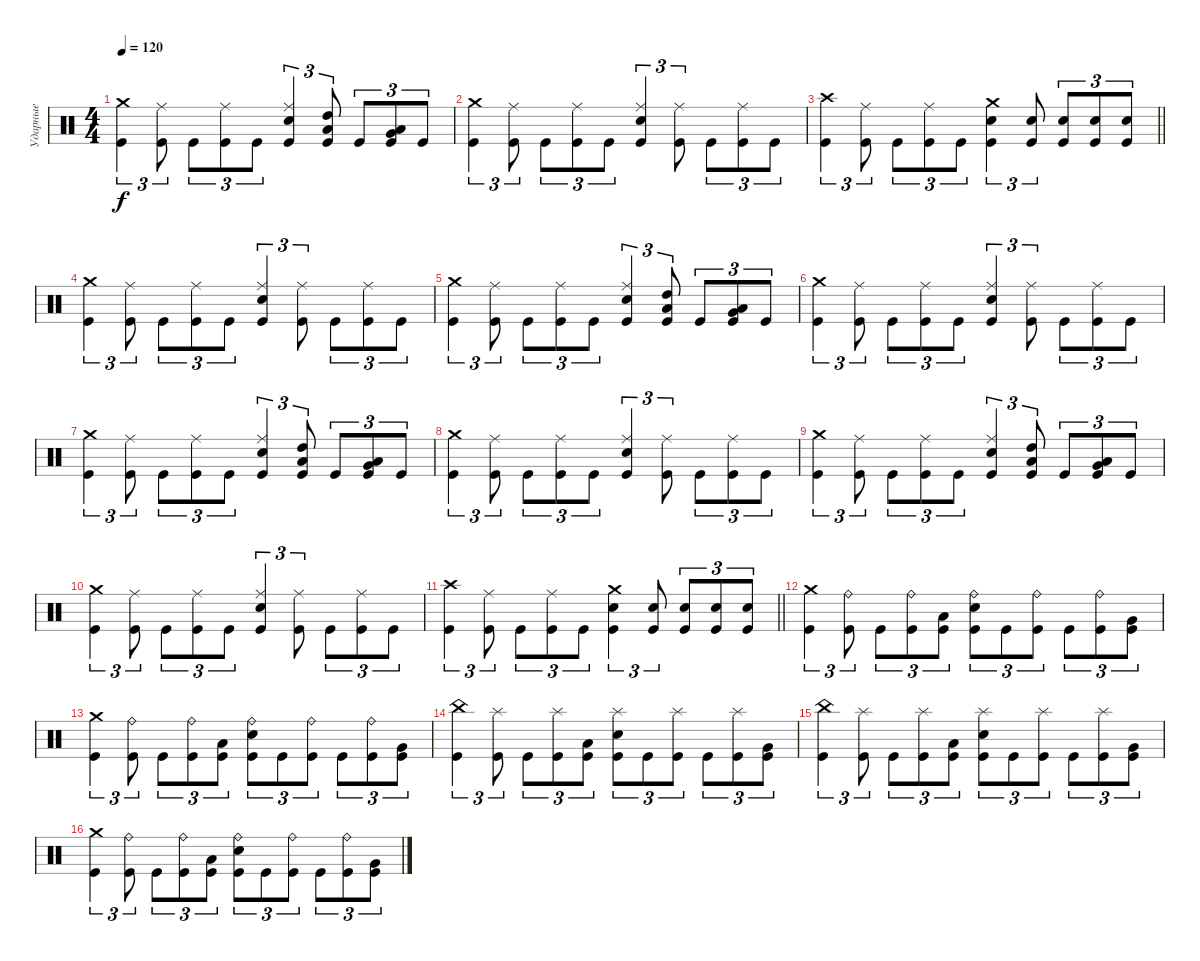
\track ("Ударные" "Ударные") {instrument percussion}
\staff {score}
\articulation defaults
\ts (4 4)
\tempo 120
\clef neutral
\ks c
("Crash medium (hit)" "Kick (hit)").4{tu (3 2) dy f} ("Ride (middle)" "Kick (hit)").8{tu (3 2)} "Kick (hit)".8{tu (3 2)} ("Ride (middle)" "Kick (hit)").8{tu (3 2)} "Kick (hit)".8{tu (3 2)} ("Ride (middle)" "Electric Snare (hit)" "Kick (hit)").4{tu (3 2)} ("Low Tom (hit)" "High Tom (hit)" "Kick (hit)").8{tu (3 2)} "Kick (hit)".8{tu (3 2)} ("Very Low Tom (hit)" "Low Tom (hit)" "Kick (hit)").8{tu (3 2)} "Kick (hit)".8{tu (3 2)} |
("Crash medium (hit)" "Kick (hit)").4{tu (3 2)} ("Ride (middle)" "Kick (hit)").8{tu (3 2)} "Kick (hit)".8{tu (3 2)} ("Ride (middle)" "Kick (hit)").8{tu (3 2)} "Kick (hit)".8{tu (3 2)} ("Ride (middle)" "Electric Snare (hit)" "Kick (hit)").4{tu (3 2)} ("Ride (middle)" "Kick (hit)").8{tu (3 2)} "Kick (hit)".8{tu (3 2)} ("Ride (middle)" "Kick (hit)").8{tu (3 2)} "Kick (hit)".8{tu (3 2)} |
\barLineRight lightlight
("Crash high (hit)" "Kick (hit)").4{tu (3 2)} ("Ride (middle)" "Kick (hit)").8{tu (3 2)} "Kick (hit)".8{tu (3 2)} ("Ride (middle)" "Kick (hit)").8{tu (3 2)} "Kick (hit)".8{tu (3 2)} ("Crash medium (hit)" "Electric Snare (hit)" "Kick (hit)").4{tu (3 2)} ("Electric Snare (hit)" "Kick (hit)").8{tu (3 2)} ("Electric Snare (hit)" "Kick (hit)").8{tu (3 2)} ("Electric Snare (hit)" "Kick (hit)").8{tu (3 2)} ("Electric Snare (hit)" "Kick (hit)").8{tu (3 2)} |
\section ("" " ")
("Crash medium (hit)" "Kick (hit)").4{tu (3 2)} ("Ride (middle)" "Kick (hit)").8{tu (3 2)} "Kick (hit)".8{tu (3 2)} ("Ride (middle)" "Kick (hit)").8{tu (3 2)} "Kick (hit)".8{tu (3 2)} ("Ride (middle)" "Electric Snare (hit)" "Kick (hit)").4{tu (3 2)} ("Ride (middle)" "Kick (hit)").8{tu (3 2)} "Kick (hit)".8{tu (3 2)} ("Ride (middle)" "Kick (hit)").8{tu (3 2)} "Kick (hit)".8{tu (3 2)} |
("Crash medium (hit)" "Kick (hit)").4{tu (3 2)} ("Ride (middle)" "Kick (hit)").8{tu (3 2)} "Kick (hit)".8{tu (3 2)} ("Ride (middle)" "Kick (hit)").8{tu (3 2)} "Kick (hit)".8{tu (3 2)} ("Ride (middle)" "Electric Snare (hit)" "Kick (hit)").4{tu (3 2)} ("Low Tom (hit)" "High Tom (hit)" "Kick (hit)").8{tu (3 2)} "Kick (hit)".8{tu (3 2)} ("Very Low Tom (hit)" "Low Tom (hit)" "Kick (hit)").8{tu (3 2)} "Kick (hit)".8{tu (3 2)} |
("Crash medium (hit)" "Kick (hit)").4{tu (3 2)} ("Ride (middle)" "Kick (hit)").8{tu (3 2)} "Kick (hit)".8{tu (3 2)} ("Ride (middle)" "Kick (hit)").8{tu (3 2)} "Kick (hit)".8{tu (3 2)} ("Ride (middle)" "Electric Snare (hit)" "Kick (hit)").4{tu (3 2)} ("Ride (middle)" "Kick (hit)").8{tu (3 2)} "Kick (hit)".8{tu (3 2)} ("Ride (middle)" "Kick (hit)").8{tu (3 2)} "Kick (hit)".8{tu (3 2)} |
("Crash medium (hit)" "Kick (hit)").4{tu (3 2)} ("Ride (middle)" "Kick (hit)").8{tu (3 2)} "Kick (hit)".8{tu (3 2)} ("Ride (middle)" "Kick (hit)").8{tu (3 2)} "Kick (hit)".8{tu (3 2)} ("Ride (middle)" "Electric Snare (hit)" "Kick (hit)").4{tu (3 2)} ("Low Tom (hit)" "High Tom (hit)" "Kick (hit)").8{tu (3 2)} "Kick (hit)".8{tu (3 2)} ("Very Low Tom (hit)" "Low Tom (hit)" "Kick (hit)").8{tu (3 2)} "Kick (hit)".8{tu (3 2)} |
("Crash medium (hit)" "Kick (hit)").4{tu (3 2)} ("Ride (middle)" "Kick (hit)").8{tu (3 2)} "Kick (hit)".8{tu (3 2)} ("Ride (middle)" "Kick (hit)").8{tu (3 2)} "Kick (hit)".8{tu (3 2)} ("Ride (middle)" "Electric Snare (hit)" "Kick (hit)").4{tu (3 2)} ("Ride (middle)" "Kick (hit)").8{tu (3 2)} "Kick (hit)".8{tu (3 2)} ("Ride (middle)" "Kick (hit)").8{tu (3 2)} "Kick (hit)".8{tu (3 2)} |
("Crash medium (hit)" "Kick (hit)").4{tu (3 2)} ("Ride (middle)" "Kick (hit)").8{tu (3 2)} "Kick (hit)".8{tu (3 2)} ("Ride (middle)" "Kick (hit)").8{tu (3 2)} "Kick (hit)".8{tu (3 2)} ("Ride (middle)" "Electric Snare (hit)" "Kick (hit)").4{tu (3 2)} ("Low Tom (hit)" "High Tom (hit)" "Kick (hit)").8{tu (3 2)} "Kick (hit)".8{tu (3 2)} ("Very Low Tom (hit)" "Low Tom (hit)" "Kick (hit)").8{tu (3 2)} "Kick (hit)".8{tu (3 2)} |
("Crash medium (hit)" "Kick (hit)").4{tu (3 2)} ("Ride (middle)" "Kick (hit)").8{tu (3 2)} "Kick (hit)".8{tu (3 2)} ("Ride (middle)" "Kick (hit)").8{tu (3 2)} "Kick (hit)".8{tu (3 2)} ("Ride (middle)" "Electric Snare (hit)" "Kick (hit)").4{tu (3 2)} ("Ride (middle)" "Kick (hit)").8{tu (3 2)} "Kick (hit)".8{tu (3 2)} ("Ride (middle)" "Kick (hit)").8{tu (3 2)} "Kick (hit)".8{tu (3 2)} |
\barLineRight lightlight
("Crash high (hit)" "Kick (hit)").4{tu (3 2)} ("Ride (middle)" "Kick (hit)").8{tu (3 2)} "Kick (hit)".8{tu (3 2)} ("Ride (middle)" "Kick (hit)").8{tu (3 2)} "Kick (hit)".8{tu (3 2)} ("Crash medium (hit)" "Electric Snare (hit)" "Kick (hit)").4{tu (3 2)} ("Electric Snare (hit)" "Kick (hit)").8{tu (3 2)} ("Electric Snare (hit)" "Kick (hit)").8{tu (3 2)} ("Electric Snare (hit)" "Kick (hit)").8{tu (3 2)} ("Electric Snare (hit)" "Kick (hit)").8{tu (3 2)} |
\section ("" " ")
("Crash medium (hit)" "Kick (hit)").4{tu (3 2)} ("Ride (bell)" "Kick (hit)").8{tu (3 2)} "Kick (hit)".8{tu (3 2)} ("Ride (bell)" "Kick (hit)").8{tu (3 2)} ("Low Floor Tom (hit)" "Kick (hit)").8{tu (3 2)} ("Ride (bell)" "Electric Snare (hit)" "Kick (hit)").8{tu (3 2)} "Kick (hit)".8{tu (3 2)} ("Ride (bell)" "Kick (hit)").8{tu (3 2)} "Kick (hit)".8{tu (3 2)} ("Ride (bell)" "Kick (hit)").8{tu (3 2)} ("Very Low Tom (hit)" "Kick (hit)").8{tu (3 2)} |
("Crash medium (hit)" "Kick (hit)").4{tu (3 2)} ("Ride (bell)" "Kick (hit)").8{tu (3 2)} "Kick (hit)".8{tu (3 2)} ("Ride (bell)" "Kick (hit)").8{tu (3 2)} ("Low Floor Tom (hit)" "Kick (hit)").8{tu (3 2)} ("Ride (bell)" "Electric Snare (hit)" "Kick (hit)").8{tu (3 2)} "Kick (hit)".8{tu (3 2)} ("Ride (bell)" "Kick (hit)").8{tu (3 2)} "Kick (hit)".8{tu (3 2)} ("Ride (bell)" "Kick (hit)").8{tu (3 2)} ("Very Low Tom (hit)" "Kick (hit)").8{tu (3 2)} |
("China (hit)" "Kick (hit)").4{tu (3 2)} ("Splash (hit)" "Kick (hit)").8{tu (3 2)} "Kick (hit)".8{tu (3 2)} ("Splash (hit)" "Kick (hit)").8{tu (3 2)} ("Low Floor Tom (hit)" "Kick (hit)").8{tu (3 2)} ("Splash (hit)" "Electric Snare (hit)" "Kick (hit)").8{tu (3 2)} "Kick (hit)".8{tu (3 2)} ("Splash (hit)" "Kick (hit)").8{tu (3 2)} "Kick (hit)".8{tu (3 2)} ("Splash (hit)" "Kick (hit)").8{tu (3 2)} ("Very Low Tom (hit)" "Kick (hit)").8{tu (3 2)} |
("China (hit)" "Kick (hit)").4{tu (3 2)} ("Splash (hit)" "Kick (hit)").8{tu (3 2)} "Kick (hit)".8{tu (3 2)} ("Splash (hit)" "Kick (hit)").8{tu (3 2)} ("Low Floor Tom (hit)" "Kick (hit)").8{tu (3 2)} ("Splash (hit)" "Electric Snare (hit)" "Kick (hit)").8{tu (3 2)} "Kick (hit)".8{tu (3 2)} ("Splash (hit)" "Kick (hit)").8{tu (3 2)} "Kick (hit)".8{tu (3 2)} ("Splash (hit)" "Kick (hit)").8{tu (3 2)} ("Very Low Tom (hit)" "Kick (hit)").8{tu (3 2)} |
("Crash medium (hit)" "Kick (hit)").4{tu (3 2)} ("Ride (bell)" "Kick (hit)").8{tu (3 2)} "Kick (hit)".8{tu (3 2)} ("Ride (bell)" "Kick (hit)").8{tu (3 2)} ("Low Floor Tom (hit)" "Kick (hit)").8{tu (3 2)} ("Ride (bell)" "Electric Snare (hit)" "Kick (hit)").8{tu (3 2)} "Kick (hit)".8{tu (3 2)} ("Ride (bell)" "Kick (hit)").8{tu (3 2)} "Kick (hit)".8{tu (3 2)} ("Ride (bell)" "Kick (hit)").8{tu (3 2)} ("Very Low Tom (hit)" "Kick (hit)").8{tu (3 2)}
